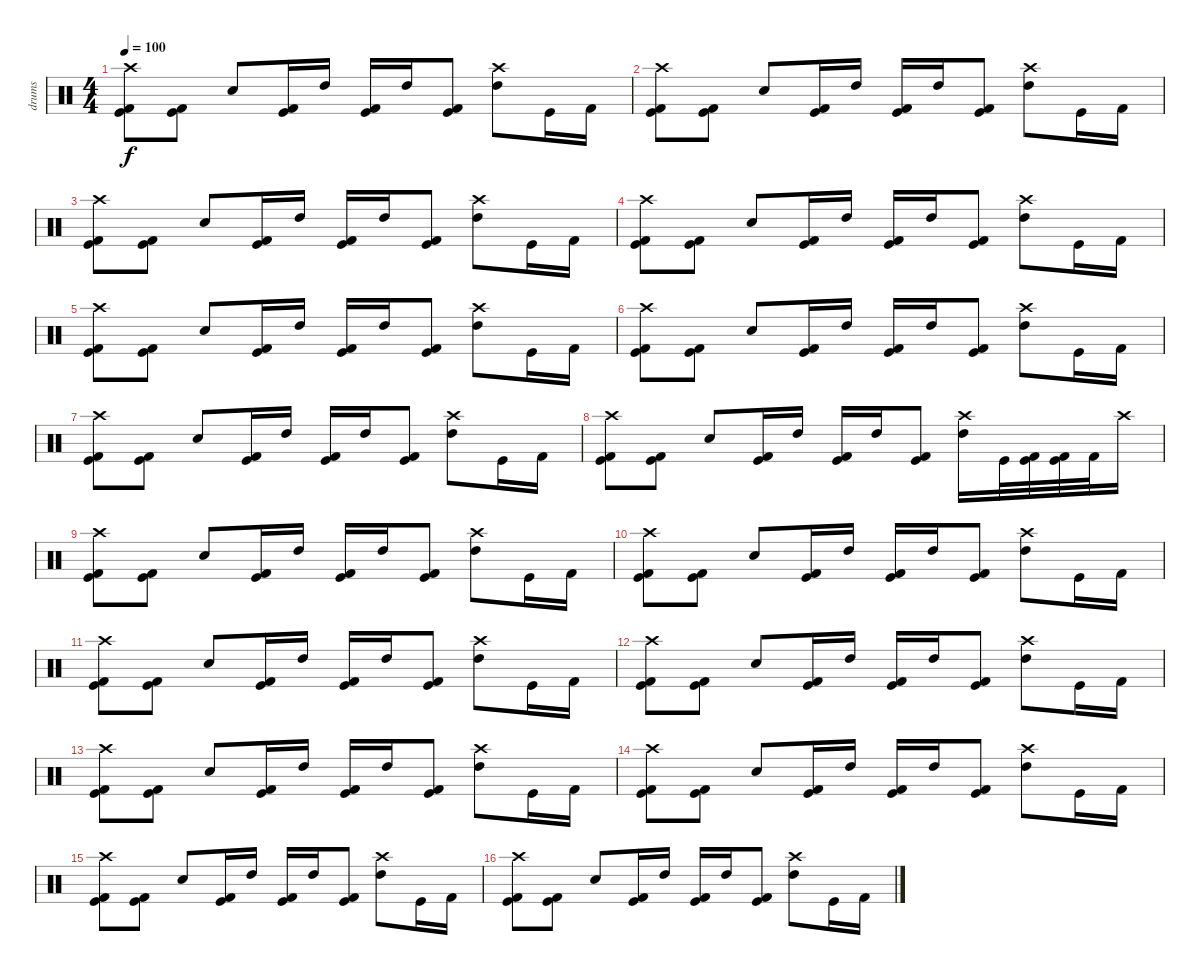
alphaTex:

\track ("drums" "drums") {instrument percussion}
\staff {score}
\articulation defaults
\ts (4 4)
\tempo 100
\clef neutral
\ks c
("Kick (hit) 2" "Kick (hit)" "Crash high (hit)").8{dy f} ("Kick (hit) 2" "Kick (hit)").8 "Snare (hit) 2".8 ("Kick (hit) 2" "Kick (hit)").16 "High Tom (hit)".16 ("Kick (hit) 2" "Kick (hit)").16 "High Tom (hit)".16 ("Kick (hit) 2" "Kick (hit)").8 ("High Tom (hit)" "Crash high (hit)").8 "Kick (hit)".16 "Kick (hit) 2".16 |
("Kick (hit) 2" "Kick (hit)" "Crash high (hit)").8 ("Kick (hit) 2" "Kick (hit)").8 "Snare (hit) 2".8 ("Kick (hit) 2" "Kick (hit)").16 "High Tom (hit)".16 ("Kick (hit) 2" "Kick (hit)").16 "High Tom (hit)".16 ("Kick (hit) 2" "Kick (hit)").8 ("High Tom (hit)" "Crash high (hit)").8 "Kick (hit)".16 "Kick (hit) 2".16 |
("Kick (hit) 2" "Kick (hit)" "Crash high (hit)").8 ("Kick (hit) 2" "Kick (hit)").8 "Snare (hit) 2".8 ("Kick (hit) 2" "Kick (hit)").16 "High Tom (hit)".16 ("Kick (hit) 2" "Kick (hit)").16 "High Tom (hit)".16 ("Kick (hit) 2" "Kick (hit)").8 ("High Tom (hit)" "Crash high (hit)").8 "Kick (hit)".16 "Kick (hit) 2".16 |
("Kick (hit) 2" "Kick (hit)" "Crash high (hit)").8 ("Kick (hit) 2" "Kick (hit)").8 "Snare (hit) 2".8 ("Kick (hit) 2" "Kick (hit)").16 "High Tom (hit)".16 ("Kick (hit) 2" "Kick (hit)").16 "High Tom (hit)".16 ("Kick (hit) 2" "Kick (hit)").8 ("High Tom (hit)" "Crash high (hit)").8 "Kick (hit)".16 "Kick (hit) 2".16 |
("Kick (hit) 2" "Kick (hit)" "Crash high (hit)").8 ("Kick (hit) 2" "Kick (hit)").8 "Snare (hit) 2".8 ("Kick (hit) 2" "Kick (hit)").16 "High Tom (hit)".16 ("Kick (hit) 2" "Kick (hit)").16 "High Tom (hit)".16 ("Kick (hit) 2" "Kick (hit)").8 ("High Tom (hit)" "Crash high (hit)").8 "Kick (hit)".16 "Kick (hit) 2".16 |
("Kick (hit) 2" "Kick (hit)" "Crash high (hit)").8 ("Kick (hit) 2" "Kick (hit)").8 "Snare (hit) 2".8 ("Kick (hit) 2" "Kick (hit)").16 "High Tom (hit)".16 ("Kick (hit) 2" "Kick (hit)").16 "High Tom (hit)".16 ("Kick (hit) 2" "Kick (hit)").8 ("High Tom (hit)" "Crash high (hit)").8 "Kick (hit)".16 "Kick (hit) 2".16 |
("Kick (hit) 2" "Kick (hit)" "Crash high (hit)").8 ("Kick (hit) 2" "Kick (hit)").8 "Snare (hit) 2".8 ("Kick (hit) 2" "Kick (hit)").16 "High Tom (hit)".16 ("Kick (hit) 2" "Kick (hit)").16 "High Tom (hit)".16 ("Kick (hit) 2" "Kick (hit)").8 ("High Tom (hit)" "Crash high (hit)").8 "Kick (hit)".16 "Kick (hit) 2".16 |
("Kick (hit) 2" "Kick (hit)" "Crash high (hit)").8 ("Kick (hit) 2" "Kick (hit)").8 "Snare (hit) 2".8 ("Kick (hit) 2" "Kick (hit)").16 "High Tom (hit)".16 ("Kick (hit) 2" "Kick (hit)").16 "High Tom (hit)".16 ("Kick (hit) 2" "Kick (hit)").8 ("High Tom (hit)" "Crash high (hit)").16 "Kick (hit)".32 ("Kick (hit)" "Kick (hit) 2").32 ("Kick (hit)" "Kick (hit) 2").32 "Kick (hit) 2".32 "Crash high (hit)".16 |
("Kick (hit) 2" "Kick (hit)" "Crash high (hit)").8 ("Kick (hit) 2" "Kick (hit)").8 "Snare (hit) 2".8 ("Kick (hit) 2" "Kick (hit)").16 "High Tom (hit)".16 ("Kick (hit) 2" "Kick (hit)").16 "High Tom (hit)".16 ("Kick (hit) 2" "Kick (hit)").8 ("High Tom (hit)" "Crash high (hit)").8 "Kick (hit)".16 "Kick (hit) 2".16 |
("Kick (hit) 2" "Kick (hit)" "Crash high (hit)").8 ("Kick (hit) 2" "Kick (hit)").8 "Snare (hit) 2".8 ("Kick (hit) 2" "Kick (hit)").16 "High Tom (hit)".16 ("Kick (hit) 2" "Kick (hit)").16 "High Tom (hit)".16 ("Kick (hit) 2" "Kick (hit)").8 ("High Tom (hit)" "Crash high (hit)").8 "Kick (hit)".16 "Kick (hit) 2".16 |
("Kick (hit) 2" "Kick (hit)" "Crash high (hit)").8 ("Kick (hit) 2" "Kick (hit)").8 "Snare (hit) 2".8 ("Kick (hit) 2" "Kick (hit)").16 "High Tom (hit)".16 ("Kick (hit) 2" "Kick (hit)").16 "High Tom (hit)".16 ("Kick (hit) 2" "Kick (hit)").8 ("High Tom (hit)" "Crash high (hit)").8 "Kick (hit)".16 "Kick (hit) 2".16 |
("Kick (hit) 2" "Kick (hit)" "Crash high (hit)").8 ("Kick (hit) 2" "Kick (hit)").8 "Snare (hit) 2".8 ("Kick (hit) 2" "Kick (hit)").16 "High Tom (hit)".16 ("Kick (hit) 2" "Kick (hit)").16 "High Tom (hit)".16 ("Kick (hit) 2" "Kick (hit)").8 ("High Tom (hit)" "Crash high (hit)").8 "Kick (hit)".16 "Kick (hit) 2".16 |
("Kick (hit) 2" "Kick (hit)" "Crash high (hit)").8 ("Kick (hit) 2" "Kick (hit)").8 "Snare (hit) 2".8 ("Kick (hit) 2" "Kick (hit)").16 "High Tom (hit)".16 ("Kick (hit) 2" "Kick (hit)").16 "High Tom (hit)".16 ("Kick (hit) 2" "Kick (hit)").8 ("High Tom (hit)" "Crash high (hit)").8 "Kick (hit)".16 "Kick (hit) 2".16 |
("Kick (hit) 2" "Kick (hit)" "Crash high (hit)").8 ("Kick (hit) 2" "Kick (hit)").8 "Snare (hit) 2".8 ("Kick (hit) 2" "Kick (hit)").16 "High Tom (hit)".16 ("Kick (hit) 2" "Kick (hit)").16 "High Tom (hit)".16 ("Kick (hit) 2" "Kick (hit)").8 ("High Tom (hit)" "Crash high (hit)").8 "Kick (hit)".16 "Kick (hit) 2".16 |
("Kick (hit) 2" "Kick (hit)" "Crash high (hit)").8 ("Kick (hit) 2" "Kick (hit)").8 "Snare (hit) 2".8 ("Kick (hit) 2" "Kick (hit)").16 "High Tom (hit)".16 ("Kick (hit) 2" "Kick (hit)").16 "High Tom (hit)".16 ("Kick (hit) 2" "Kick (hit)").8 ("High Tom (hit)" "Crash high (hit)").8 "Kick (hit)".16 "Kick (hit) 2".16 |
("Kick (hit) 2" "Kick (hit)" "Crash high (hit)").8 ("Kick (hit) 2" "Kick (hit)").8 "Snare (hit) 2".8 ("Kick (hit) 2" "Kick (hit)").16 "High Tom (hit)".16 ("Kick (hit) 2" "Kick (hit)").16 "High Tom (hit)".16 ("Kick (hit) 2" "Kick (hit)").8 ("High Tom (hit)" "Crash high (hit)").8 "Kick (hit)".16 "Kick (hit) 2".16
